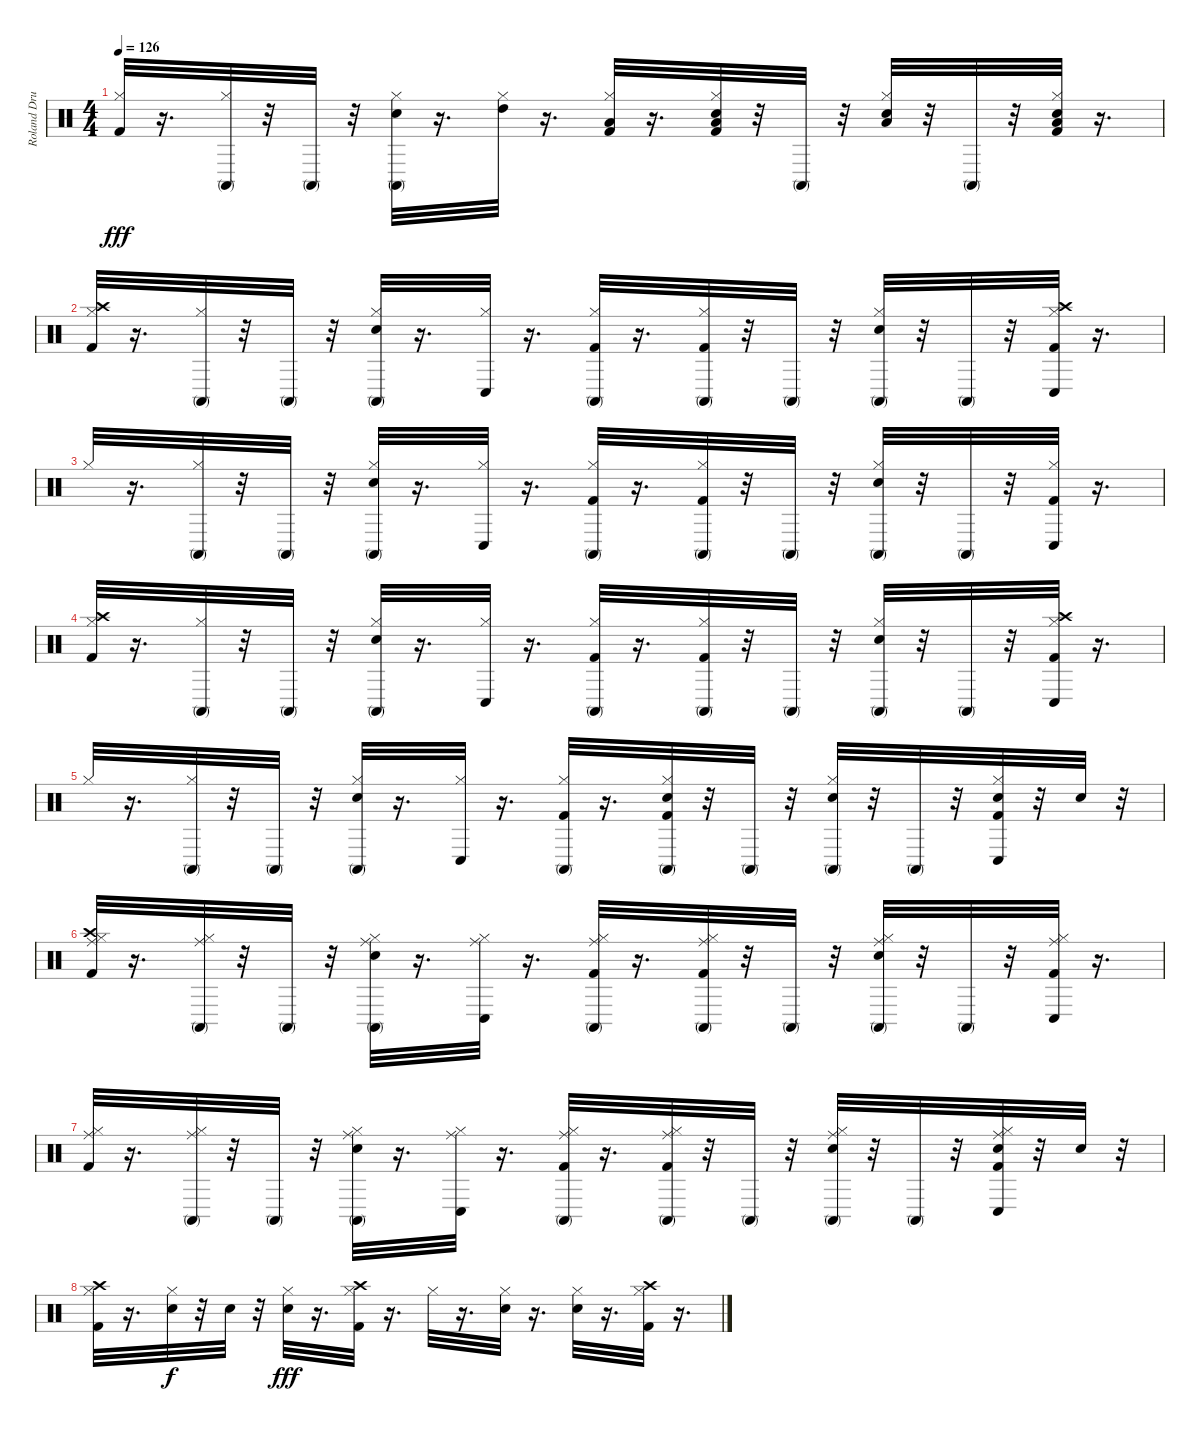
\track ("Roland Drums" "Roland Dru") {instrument percussion}
\staff {score}
\articulation defaults
\ts (4 4)
\tempo 126
\clef neutral
\ks c
("Kick (hit) 2" "Hi-Hat (closed)").32{dy fff} r.16{d} ("Hi-Hat (closed)" "Conga high (mute)").32 r.32 "Conga high (mute)".32 r.32 ("Snare (hit) 2" "Hi-Hat (closed)" "Conga high (mute)").32 r.16{d} ("Hi-Hat (closed)" "High Tom (hit)").32 r.16{d} ("Kick (hit) 2" "Hi-Hat (closed)" "Low Tom (hit)").32 r.16{d} ("Kick (hit) 2" "Snare (hit) 2" "Hi-Hat (closed)" "Low Floor Tom (hit)").32 r.32 "Conga high (mute)".32 r.32 ("Snare (hit) 2" "Hi-Hat (closed)" "Low Floor Tom (hit)").32 r.32 "Conga high (mute)".32 r.32 ("Kick (hit) 2" "Snare (hit) 2" "Hi-Hat (closed)" "Low Floor Tom (hit)").32 r.16{d} |
("Kick (hit) 2" "Hi-Hat (closed)" "Crash high (hit)").32 r.16{d} ("Hi-Hat (closed)" "Conga high (mute)").32 r.32 "Conga high (mute)".32 r.32 ("Snare (hit) 2" "Hi-Hat (closed)" "Conga high (mute)").32 r.16{d} ("Hi-Hat (closed)" "Conga low (hit)").32 r.16{d} ("Kick (hit) 2" "Hi-Hat (closed)" "Conga high (mute)").32 r.16{d} ("Kick (hit) 2" "Hi-Hat (closed)" "Conga high (mute)").32 r.32 "Conga high (mute)".32 r.32 ("Snare (hit) 2" "Hi-Hat (closed)" "Conga high (mute)").32 r.32 "Conga high (mute)".32 r.32 ("Kick (hit) 2" "Hi-Hat (closed)" "Crash high (hit)" "Conga low (hit)").32 r.16{d} |
"Hi-Hat (closed)".32 r.16{d} ("Hi-Hat (closed)" "Conga high (mute)").32 r.32 "Conga high (mute)".32 r.32 ("Snare (hit) 2" "Hi-Hat (closed)" "Conga high (mute)").32 r.16{d} ("Hi-Hat (closed)" "Conga low (hit)").32 r.16{d} ("Kick (hit) 2" "Hi-Hat (closed)" "Conga high (mute)").32 r.16{d} ("Kick (hit) 2" "Hi-Hat (closed)" "Conga high (mute)").32 r.32 "Conga high (mute)".32 r.32 ("Snare (hit) 2" "Hi-Hat (closed)" "Conga high (mute)").32 r.32 "Conga high (mute)".32 r.32 ("Kick (hit) 2" "Hi-Hat (closed)" "Conga low (hit)").32 r.16{d} |
("Kick (hit) 2" "Hi-Hat (closed)" "Crash high (hit)").32 r.16{d} ("Hi-Hat (closed)" "Conga high (mute)").32 r.32 "Conga high (mute)".32 r.32 ("Snare (hit) 2" "Hi-Hat (closed)" "Conga high (mute)").32 r.16{d} ("Hi-Hat (closed)" "Conga low (hit)").32 r.16{d} ("Kick (hit) 2" "Hi-Hat (closed)" "Conga high (mute)").32 r.16{d} ("Kick (hit) 2" "Hi-Hat (closed)" "Conga high (mute)").32 r.32 "Conga high (mute)".32 r.32 ("Snare (hit) 2" "Hi-Hat (closed)" "Conga high (mute)").32 r.32 "Conga high (mute)".32 r.32 ("Kick (hit) 2" "Hi-Hat (closed)" "Crash high (hit)" "Conga low (hit)").32 r.16{d} |
"Hi-Hat (closed)".32 r.16{d} ("Hi-Hat (closed)" "Conga high (mute)").32 r.32 "Conga high (mute)".32 r.32 ("Snare (hit) 2" "Hi-Hat (closed)" "Conga high (mute)").32 r.16{d} ("Hi-Hat (closed)" "Conga low (hit)").32 r.16{d} ("Kick (hit) 2" "Hi-Hat (closed)" "Conga high (mute)").32 r.16{d} ("Kick (hit) 2" "Snare (hit) 2" "Hi-Hat (closed)" "Conga high (mute)").32 r.32 "Conga high (mute)".32 r.32 ("Snare (hit) 2" "Hi-Hat (closed)" "Conga high (mute)").32 r.32 "Conga high (mute)".32 r.32 ("Kick (hit) 2" "Snare (hit) 2" "Hi-Hat (closed)" "Conga low (hit)").32 r.32 "Snare (hit) 2".32 r.32 |
("Kick (hit) 2" "Hi-Hat (closed)" "Crash high (hit)" "Ride (middle)").32 r.16{d} ("Hi-Hat (closed)" "Ride (middle)" "Conga high (mute)").32 r.32 "Conga high (mute)".32 r.32 ("Snare (hit) 2" "Hi-Hat (closed)" "Ride (middle)" "Conga high (mute)").32 r.16{d} ("Hi-Hat (closed)" "Ride (middle)" "Conga low (hit)").32 r.16{d} ("Kick (hit) 2" "Hi-Hat (closed)" "Ride (middle)" "Conga high (mute)").32 r.16{d} ("Kick (hit) 2" "Hi-Hat (closed)" "Ride (middle)" "Conga high (mute)").32 r.32 "Conga high (mute)".32 r.32 ("Snare (hit) 2" "Hi-Hat (closed)" "Ride (middle)" "Conga high (mute)").32 r.32 "Conga high (mute)".32 r.32 ("Kick (hit) 2" "Hi-Hat (closed)" "Ride (middle)" "Conga low (hit)").32 r.16{d} |
("Kick (hit) 2" "Hi-Hat (closed)" "Ride (middle)").32 r.16{d} ("Hi-Hat (closed)" "Ride (middle)" "Conga high (mute)").32 r.32 "Conga high (mute)".32 r.32 ("Snare (hit) 2" "Hi-Hat (closed)" "Ride (middle)" "Conga high (mute)").32 r.16{d} ("Hi-Hat (closed)" "Ride (middle)" "Conga low (hit)").32 r.16{d} ("Kick (hit) 2" "Hi-Hat (closed)" "Ride (middle)" "Conga high (mute)").32 r.16{d} ("Kick (hit) 2" "Hi-Hat (closed)" "Ride (middle)" "Conga high (mute)").32 r.32 "Conga high (mute)".32 r.32 ("Snare (hit) 2" "Hi-Hat (closed)" "Ride (middle)" "Conga high (mute)").32 r.32 "Conga high (mute)".32 r.32 ("Kick (hit) 2" "Snare (hit) 2" "Hi-Hat (closed)" "Ride (middle)" "Conga low (hit)").32 r.32 "Snare (hit) 2".32 r.32 |
("Kick (hit) 2" "Hi-Hat (closed)" "Crash high (hit)").32 r.16{d} ("Snare (hit) 2" "Hi-Hat (closed)").32{dy f} r.32 "Snare (hit) 2".32 r.32 ("Snare (hit) 2" "Hi-Hat (closed)").32{dy fff} r.16{d} ("Kick (hit) 2" "Hi-Hat (closed)" "Crash high (hit)").32 r.16{d} "Hi-Hat (closed)".32 r.16{d} ("Snare (hit) 2" "Hi-Hat (closed)").32 r.16{d} ("Snare (hit) 2" "Hi-Hat (closed)").32 r.16{d} ("Kick (hit) 2" "Hi-Hat (closed)" "Crash high (hit)").32 r.16{d}
